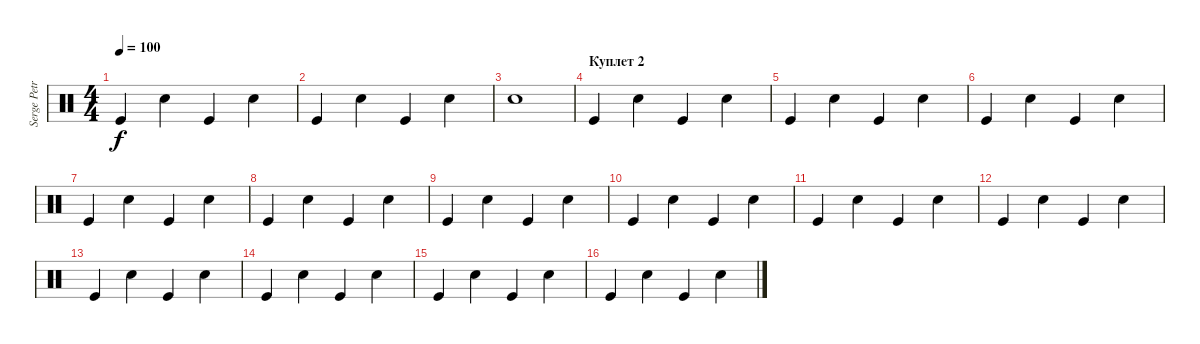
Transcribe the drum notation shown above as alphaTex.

\track ("Serge Petrone" "Serge Petr") {instrument percussion}
\staff {score}
\articulation defaults
\ts (4 4)
\tempo 100
\clef neutral
\ks c "Kick (hit)".4{dy f} "Snare (hit) 2".4 "Kick (hit)".4 "Snare (hit) 2".4
|
"Kick (hit)".4 "Snare (hit) 2".4 "Kick (hit)".4 "Snare (hit) 2".4 |
"Snare (hit) 2".1 |
\section ("" "Куплет 2")
"Kick (hit)".4{volume 13} "Snare (hit) 2".4 "Kick (hit)".4 "Snare (hit) 2".4 |
"Kick (hit)".4 "Snare (hit) 2".4 "Kick (hit)".4 "Snare (hit) 2".4 |
"Kick (hit)".4 "Snare (hit) 2".4 "Kick (hit)".4 "Snare (hit) 2".4 |
"Kick (hit)".4 "Snare (hit) 2".4 "Kick (hit)".4 "Snare (hit) 2".4 |
"Kick (hit)".4 "Snare (hit) 2".4 "Kick (hit)".4 "Snare (hit) 2".4 |
"Kick (hit)".4 "Snare (hit) 2".4 "Kick (hit)".4 "Snare (hit) 2".4 |
"Kick (hit)".4 "Snare (hit) 2".4 "Kick (hit)".4 "Snare (hit) 2".4 |
"Kick (hit)".4 "Snare (hit) 2".4 "Kick (hit)".4 "Snare (hit) 2".4 |
"Kick (hit)".4 "Snare (hit) 2".4 "Kick (hit)".4 "Snare (hit) 2".4 |
"Kick (hit)".4 "Snare (hit) 2".4 "Kick (hit)".4 "Snare (hit) 2".4 |
"Kick (hit)".4 "Snare (hit) 2".4 "Kick (hit)".4 "Snare (hit) 2".4 |
"Kick (hit)".4 "Snare (hit) 2".4 "Kick (hit)".4 "Snare (hit) 2".4 |
"Kick (hit)".4 "Snare (hit) 2".4 "Kick (hit)".4 "Snare (hit) 2".4
